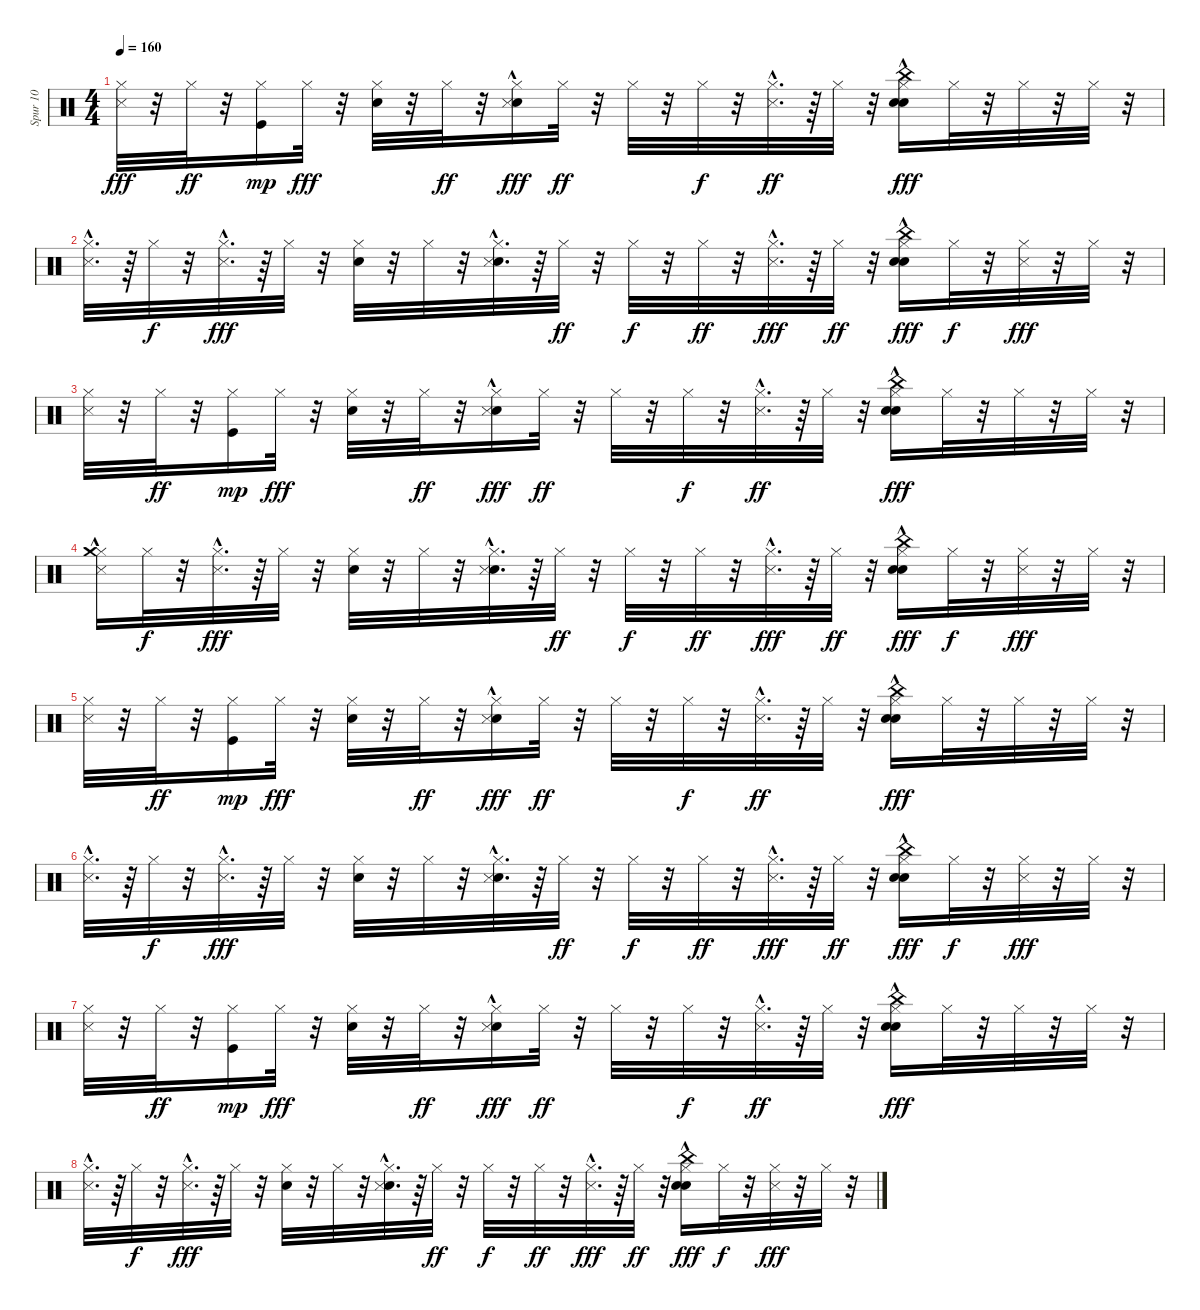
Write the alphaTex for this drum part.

\track ("Spur 10" "Spur 10") {instrument percussion}
\staff {score}
\articulation defaults
\ts (4 4)
\tempo 160
\clef neutral
\ks c
("Hi-Hat (closed)" "Metronome (hit)").32{dy fff} r.32 "Hi-Hat (closed)".32{dy ff} r.32 ("Hi-Hat (closed)" "Kick (hit)").16{dy mp} "Hi-Hat (closed)".32{dy fff} r.32 ("Hi-Hat (closed)" "Snare (hit) 2").32 r.32 "Hi-Hat (closed)".32{dy ff} r.32 ("Hi-Hat (closed)" "Snare (hit) 2" "Metronome (hit)"{hac}).16{dy fff} "Hi-Hat (closed)".32{dy ff} r.32 "Hi-Hat (closed)".32 r.32 "Hi-Hat (closed)".32{dy f} r.32 ("Hi-Hat (closed)" "Metronome (hit)"{hac}).32{d dy ff} r.64 "Hi-Hat (closed)".32 r.32 ("Hi-Hat (closed)" "Snare (hit) 2"{hac} "China (hit)" "Hand Clap (hit)").16{dy fff} "Hi-Hat (closed)".32 r.32 "Hi-Hat (closed)".32 r.32 "Hi-Hat (closed)".32 r.32 |
("Hi-Hat (closed)" "Metronome (hit)"{hac}).32{d} r.64 "Hi-Hat (closed)".32{dy f} r.32 ("Hi-Hat (closed)" "Metronome (hit)"{hac}).32{d dy fff} r.64 "Hi-Hat (closed)".32 r.32 ("Hi-Hat (closed)" "Snare (hit) 2").32 r.32 "Hi-Hat (closed)".32 r.32 ("Hi-Hat (closed)" "Snare (hit) 2"{hac} "Metronome (hit)"{hac}).32{d} r.64 "Hi-Hat (closed)".32{dy ff} r.32 "Hi-Hat (closed)".32{dy f} r.32 "Hi-Hat (closed)".32{dy ff} r.32 ("Hi-Hat (closed)" "Metronome (hit)"{hac}).32{d dy fff} r.64 "Hi-Hat (closed)".32{dy ff} r.32 ("Hi-Hat (closed)" "Snare (hit) 2"{hac} "China (hit)" "Hand Clap (hit)").16{dy fff} "Hi-Hat (closed)".32{dy f} r.32 ("Hi-Hat (closed)" "Metronome (hit)").32{dy fff} r.32 "Hi-Hat (closed)".32 r.32 |
("Hi-Hat (closed)" "Metronome (hit)").32 r.32 "Hi-Hat (closed)".32{dy ff} r.32 ("Hi-Hat (closed)" "Kick (hit)").16{dy mp} "Hi-Hat (closed)".32{dy fff} r.32 ("Hi-Hat (closed)" "Snare (hit) 2").32 r.32 "Hi-Hat (closed)".32{dy ff} r.32 ("Hi-Hat (closed)" "Snare (hit) 2" "Metronome (hit)"{hac}).16{dy fff} "Hi-Hat (closed)".32{dy ff} r.32 "Hi-Hat (closed)".32 r.32 "Hi-Hat (closed)".32{dy f} r.32 ("Hi-Hat (closed)" "Metronome (hit)"{hac}).32{d dy ff} r.64 "Hi-Hat (closed)".32 r.32 ("Hi-Hat (closed)" "Snare (hit) 2"{hac} "China (hit)" "Hand Clap (hit)").16{dy fff} "Hi-Hat (closed)".32 r.32 "Hi-Hat (closed)".32 r.32 "Hi-Hat (closed)".32 r.32 |
("Hi-Hat (closed)" "Metronome (hit)"{hac} "Crash medium (hit)").16 "Hi-Hat (closed)".32{dy f} r.32 ("Hi-Hat (closed)" "Metronome (hit)"{hac}).32{d dy fff} r.64 "Hi-Hat (closed)".32 r.32 ("Hi-Hat (closed)" "Snare (hit) 2").32 r.32 "Hi-Hat (closed)".32 r.32 ("Hi-Hat (closed)" "Snare (hit) 2"{hac} "Metronome (hit)"{hac}).32{d} r.64 "Hi-Hat (closed)".32{dy ff} r.32 "Hi-Hat (closed)".32{dy f} r.32 "Hi-Hat (closed)".32{dy ff} r.32 ("Hi-Hat (closed)" "Metronome (hit)"{hac}).32{d dy fff} r.64 "Hi-Hat (closed)".32{dy ff} r.32 ("Hi-Hat (closed)" "Snare (hit) 2"{hac} "China (hit)" "Hand Clap (hit)").16{dy fff} "Hi-Hat (closed)".32{dy f} r.32 ("Hi-Hat (closed)" "Metronome (hit)").32{dy fff} r.32 "Hi-Hat (closed)".32 r.32 |
("Hi-Hat (closed)" "Metronome (hit)").32 r.32 "Hi-Hat (closed)".32{dy ff} r.32 ("Hi-Hat (closed)" "Kick (hit)").16{dy mp} "Hi-Hat (closed)".32{dy fff} r.32 ("Hi-Hat (closed)" "Snare (hit) 2").32 r.32 "Hi-Hat (closed)".32{dy ff} r.32 ("Hi-Hat (closed)" "Snare (hit) 2" "Metronome (hit)"{hac}).16{dy fff} "Hi-Hat (closed)".32{dy ff} r.32 "Hi-Hat (closed)".32 r.32 "Hi-Hat (closed)".32{dy f} r.32 ("Hi-Hat (closed)" "Metronome (hit)"{hac}).32{d dy ff} r.64 "Hi-Hat (closed)".32 r.32 ("Hi-Hat (closed)" "Snare (hit) 2"{hac} "China (hit)" "Hand Clap (hit)").16{dy fff} "Hi-Hat (closed)".32 r.32 "Hi-Hat (closed)".32 r.32 "Hi-Hat (closed)".32 r.32 |
("Hi-Hat (closed)" "Metronome (hit)"{hac}).32{d} r.64 "Hi-Hat (closed)".32{dy f} r.32 ("Hi-Hat (closed)" "Metronome (hit)"{hac}).32{d dy fff} r.64 "Hi-Hat (closed)".32 r.32 ("Hi-Hat (closed)" "Snare (hit) 2").32 r.32 "Hi-Hat (closed)".32 r.32 ("Hi-Hat (closed)" "Snare (hit) 2"{hac} "Metronome (hit)"{hac}).32{d} r.64 "Hi-Hat (closed)".32{dy ff} r.32 "Hi-Hat (closed)".32{dy f} r.32 "Hi-Hat (closed)".32{dy ff} r.32 ("Hi-Hat (closed)" "Metronome (hit)"{hac}).32{d dy fff} r.64 "Hi-Hat (closed)".32{dy ff} r.32 ("Hi-Hat (closed)" "Snare (hit) 2"{hac} "China (hit)" "Hand Clap (hit)").16{dy fff} "Hi-Hat (closed)".32{dy f} r.32 ("Hi-Hat (closed)" "Metronome (hit)").32{dy fff} r.32 "Hi-Hat (closed)".32 r.32 |
("Hi-Hat (closed)" "Metronome (hit)").32 r.32 "Hi-Hat (closed)".32{dy ff} r.32 ("Hi-Hat (closed)" "Kick (hit)").16{dy mp} "Hi-Hat (closed)".32{dy fff} r.32 ("Hi-Hat (closed)" "Snare (hit) 2").32 r.32 "Hi-Hat (closed)".32{dy ff} r.32 ("Hi-Hat (closed)" "Snare (hit) 2" "Metronome (hit)"{hac}).16{dy fff} "Hi-Hat (closed)".32{dy ff} r.32 "Hi-Hat (closed)".32 r.32 "Hi-Hat (closed)".32{dy f} r.32 ("Hi-Hat (closed)" "Metronome (hit)"{hac}).32{d dy ff} r.64 "Hi-Hat (closed)".32 r.32 ("Hi-Hat (closed)" "Snare (hit) 2"{hac} "China (hit)" "Hand Clap (hit)").16{dy fff} "Hi-Hat (closed)".32 r.32 "Hi-Hat (closed)".32 r.32 "Hi-Hat (closed)".32 r.32 |
("Hi-Hat (closed)" "Metronome (hit)"{hac}).32{d} r.64 "Hi-Hat (closed)".32{dy f} r.32 ("Hi-Hat (closed)" "Metronome (hit)"{hac}).32{d dy fff} r.64 "Hi-Hat (closed)".32 r.32 ("Hi-Hat (closed)" "Snare (hit) 2").32 r.32 "Hi-Hat (closed)".32 r.32 ("Hi-Hat (closed)" "Snare (hit) 2"{hac} "Metronome (hit)"{hac}).32{d} r.64 "Hi-Hat (closed)".32{dy ff} r.32 "Hi-Hat (closed)".32{dy f} r.32 "Hi-Hat (closed)".32{dy ff} r.32 ("Hi-Hat (closed)" "Metronome (hit)"{hac}).32{d dy fff} r.64 "Hi-Hat (closed)".32{dy ff} r.32 ("Hi-Hat (closed)" "Snare (hit) 2"{hac} "China (hit)" "Hand Clap (hit)").16{dy fff} "Hi-Hat (closed)".32{dy f} r.32 ("Hi-Hat (closed)" "Metronome (hit)").32{dy fff} r.32 "Hi-Hat (closed)".32 r.32
